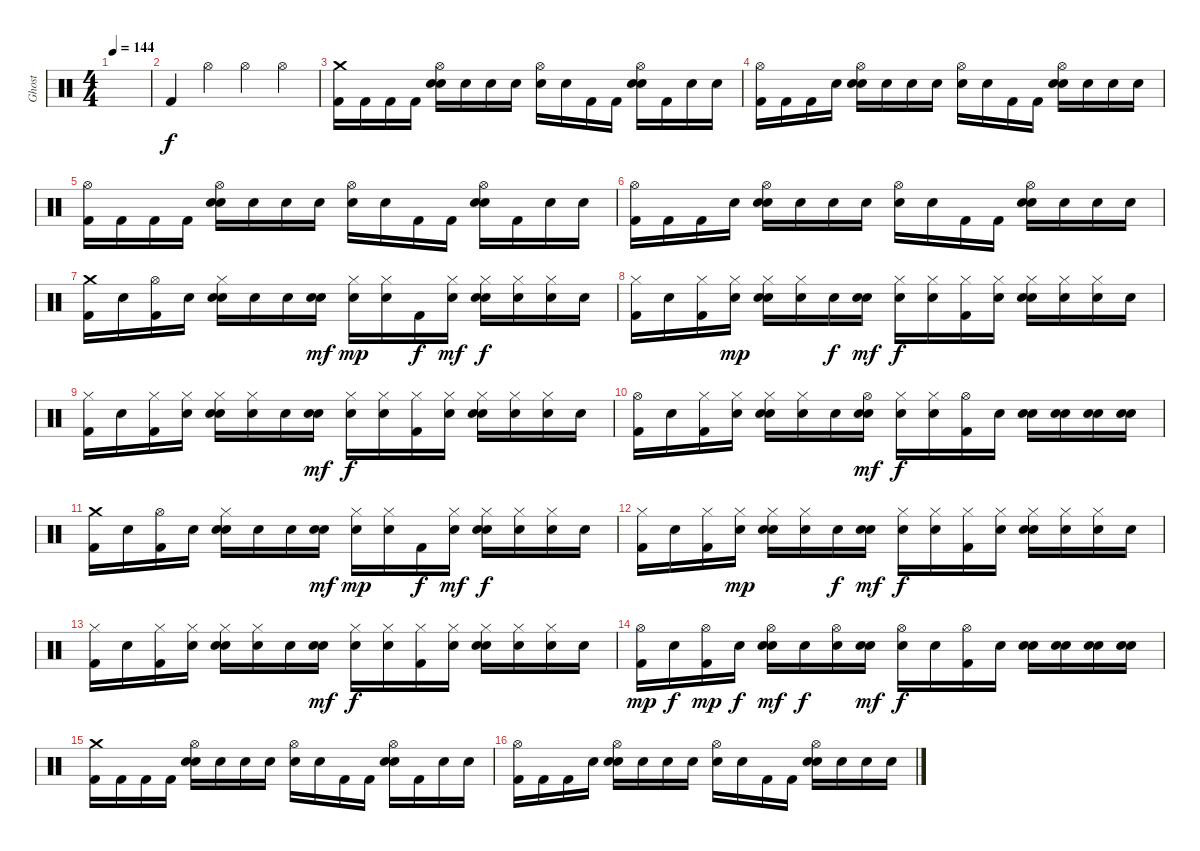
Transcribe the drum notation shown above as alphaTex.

\track ("Ghost" "Ghost") {instrument percussion}
\staff {score}
\articulation defaults
\ts (4 4)
\tempo 144
\clef neutral
\ks c
|
"Kick (hit) 2".4 "Hi-Hat (open)".4 "Hi-Hat (open)".4 "Hi-Hat (open)".4 |
("Crash medium (hit)" "Kick (hit) 2").16 "Kick (hit) 2".16 "Kick (hit) 2".16 "Kick (hit) 2".16 ("Hi-Hat (open)" "Electric Snare (hit)" "Snare (hit)").16 "Snare (hit)".16 "Snare (hit)".16 "Electric Snare (hit)".16 ("Hi-Hat (open)" "Snare (hit)").16 "Snare (hit)".16 "Kick (hit) 2".16 "Kick (hit) 2".16 ("Hi-Hat (open)" "Electric Snare (hit)" "Snare (hit)").16 "Kick (hit) 2".16 "Snare (hit)".16 "Snare (hit)".16 |
("Hi-Hat (open)" "Kick (hit) 2").16 "Kick (hit) 2".16 "Kick (hit) 2".16 "Snare (hit)".16 ("Hi-Hat (open)" "Electric Snare (hit)" "Snare (hit)").16 "Snare (hit)".16 "Snare (hit)".16 "Electric Snare (hit)".16 ("Hi-Hat (open)" "Snare (hit)").16 "Snare (hit)".16 "Kick (hit) 2".16 "Kick (hit) 2".16 ("Hi-Hat (open)" "Electric Snare (hit)" "Snare (hit)").16 "Snare (hit)".16 "Snare (hit)".16 "Snare (hit)".16 |
("Hi-Hat (open)" "Kick (hit) 2").16 "Kick (hit) 2".16 "Kick (hit) 2".16 "Kick (hit) 2".16 ("Hi-Hat (open)" "Electric Snare (hit)" "Snare (hit)").16 "Snare (hit)".16 "Snare (hit)".16 "Electric Snare (hit)".16 ("Hi-Hat (open)" "Snare (hit)").16 "Snare (hit)".16 "Kick (hit) 2".16 "Kick (hit) 2".16 ("Hi-Hat (open)" "Electric Snare (hit)" "Snare (hit)").16 "Kick (hit) 2".16 "Snare (hit)".16 "Snare (hit)".16 |
("Hi-Hat (open)" "Kick (hit) 2").16 "Kick (hit) 2".16 "Kick (hit) 2".16 "Snare (hit)".16 ("Hi-Hat (open)" "Electric Snare (hit)" "Snare (hit)").16 "Snare (hit)".16 "Snare (hit)".16 "Electric Snare (hit)".16 ("Hi-Hat (open)" "Snare (hit)").16 "Snare (hit)".16 "Kick (hit) 2".16 "Kick (hit) 2".16 ("Hi-Hat (open)" "Electric Snare (hit)" "Snare (hit)").16 "Snare (hit)".16 "Snare (hit)".16 "Snare (hit)".16 |
("Crash medium (hit)" "Kick (hit) 2").16 "Snare (hit)".16 ("Hi-Hat (open)" "Kick (hit) 2").16 "Snare (hit)".16 ("Hi-Hat (closed)" "Electric Snare (hit)" "Snare (hit)").16 "Snare (hit)".16 "Snare (hit)".16 ("Electric Snare (hit)" "Snare (hit)").16{dy mf} ("Hi-Hat (closed)" "Snare (hit)").16{dy mp} ("Hi-Hat (closed)" "Snare (hit)").16 "Kick (hit) 2".16{dy f} ("Hi-Hat (closed)" "Snare (hit)").16{dy mf} ("Hi-Hat (closed)" "Electric Snare (hit)" "Snare (hit)").16{dy f} ("Hi-Hat (closed)" "Snare (hit)").16 ("Hi-Hat (closed)" "Snare (hit)").16 "Snare (hit)".16 |
("Hi-Hat (closed)" "Kick (hit) 2").16 "Snare (hit)".16 ("Hi-Hat (closed)" "Kick (hit) 2").16 ("Hi-Hat (closed)" "Snare (hit)").16{dy mp} ("Hi-Hat (closed)" "Electric Snare (hit)" "Snare (hit)").16 ("Hi-Hat (closed)" "Snare (hit)").16 "Snare (hit)".16{dy f} ("Electric Snare (hit)" "Snare (hit)").16{dy mf} ("Hi-Hat (closed)" "Snare (hit)").16{dy f} ("Hi-Hat (closed)" "Snare (hit)").16 ("Hi-Hat (closed)" "Kick (hit) 2").16 ("Hi-Hat (closed)" "Snare (hit)").16 ("Hi-Hat (closed)" "Electric Snare (hit)" "Snare (hit)").16 ("Hi-Hat (closed)" "Snare (hit)").16 ("Hi-Hat (closed)" "Snare (hit)").16 "Snare (hit)".16 |
("Hi-Hat (closed)" "Kick (hit) 2").16 "Snare (hit)".16 ("Hi-Hat (closed)" "Kick (hit) 2").16 ("Hi-Hat (closed)" "Snare (hit)").16 ("Hi-Hat (closed)" "Electric Snare (hit)" "Snare (hit)").16 ("Hi-Hat (closed)" "Snare (hit)").16 "Snare (hit)".16 ("Electric Snare (hit)" "Snare (hit)").16{dy mf} ("Hi-Hat (closed)" "Snare (hit)").16{dy f} ("Hi-Hat (closed)" "Snare (hit)").16 ("Hi-Hat (closed)" "Kick (hit) 2").16 ("Hi-Hat (closed)" "Snare (hit)").16 ("Hi-Hat (closed)" "Electric Snare (hit)" "Snare (hit)").16 ("Hi-Hat (closed)" "Snare (hit)").16 ("Hi-Hat (closed)" "Snare (hit)").16 "Snare (hit)".16 |
("Hi-Hat (open)" "Kick (hit) 2").16 "Snare (hit)".16 ("Hi-Hat (closed)" "Kick (hit) 2").16 ("Hi-Hat (closed)" "Snare (hit)").16 ("Hi-Hat (closed)" "Electric Snare (hit)" "Snare (hit)").16 ("Hi-Hat (closed)" "Snare (hit)").16 "Snare (hit)".16 ("Hi-Hat (open)" "Electric Snare (hit)" "Snare (hit)").16{dy mf} ("Hi-Hat (closed)" "Snare (hit)").16{dy f} ("Hi-Hat (closed)" "Snare (hit)").16 ("Hi-Hat (open)" "Kick (hit) 2").16 "Snare (hit)".16 ("Electric Snare (hit)" "Snare (hit)").16 ("Electric Snare (hit)" "Snare (hit)").16 ("Electric Snare (hit)" "Snare (hit)").16 ("Electric Snare (hit)" "Snare (hit)").16 |
("Crash medium (hit)" "Kick (hit) 2").16 "Snare (hit)".16 ("Hi-Hat (open)" "Kick (hit) 2").16 "Snare (hit)".16 ("Hi-Hat (closed)" "Electric Snare (hit)" "Snare (hit)").16 "Snare (hit)".16 "Snare (hit)".16 ("Electric Snare (hit)" "Snare (hit)").16{dy mf} ("Hi-Hat (closed)" "Snare (hit)").16{dy mp} ("Hi-Hat (closed)" "Snare (hit)").16 "Kick (hit) 2".16{dy f} ("Hi-Hat (closed)" "Snare (hit)").16{dy mf} ("Hi-Hat (closed)" "Electric Snare (hit)" "Snare (hit)").16{dy f} ("Hi-Hat (closed)" "Snare (hit)").16 ("Hi-Hat (closed)" "Snare (hit)").16 "Snare (hit)".16 |
("Hi-Hat (closed)" "Kick (hit) 2").16 "Snare (hit)".16 ("Hi-Hat (closed)" "Kick (hit) 2").16 ("Hi-Hat (closed)" "Snare (hit)").16{dy mp} ("Hi-Hat (closed)" "Electric Snare (hit)" "Snare (hit)").16 ("Hi-Hat (closed)" "Snare (hit)").16 "Snare (hit)".16{dy f} ("Electric Snare (hit)" "Snare (hit)").16{dy mf} ("Hi-Hat (closed)" "Snare (hit)").16{dy f} ("Hi-Hat (closed)" "Snare (hit)").16 ("Hi-Hat (closed)" "Kick (hit) 2").16 ("Hi-Hat (closed)" "Snare (hit)").16 ("Hi-Hat (closed)" "Electric Snare (hit)" "Snare (hit)").16 ("Hi-Hat (closed)" "Snare (hit)").16 ("Hi-Hat (closed)" "Snare (hit)").16 "Snare (hit)".16 |
("Hi-Hat (closed)" "Kick (hit) 2").16 "Snare (hit)".16 ("Hi-Hat (closed)" "Kick (hit) 2").16 ("Hi-Hat (closed)" "Snare (hit)").16 ("Hi-Hat (closed)" "Electric Snare (hit)" "Snare (hit)").16 ("Hi-Hat (closed)" "Snare (hit)").16 "Snare (hit)".16 ("Electric Snare (hit)" "Snare (hit)").16{dy mf} ("Hi-Hat (closed)" "Snare (hit)").16{dy f} ("Hi-Hat (closed)" "Snare (hit)").16 ("Hi-Hat (closed)" "Kick (hit) 2").16 ("Hi-Hat (closed)" "Snare (hit)").16 ("Hi-Hat (closed)" "Electric Snare (hit)" "Snare (hit)").16 ("Hi-Hat (closed)" "Snare (hit)").16 ("Hi-Hat (closed)" "Snare (hit)").16 "Snare (hit)".16 |
("Hi-Hat (open)" "Kick (hit) 2").16{dy mp} "Snare (hit)".16{dy f} ("Hi-Hat (open)" "Kick (hit) 2").16{dy mp} "Snare (hit)".16{dy f} ("Hi-Hat (open)" "Electric Snare (hit)" "Snare (hit)").16{dy mf} "Snare (hit)".16{dy f} ("Hi-Hat (open)" "Snare (hit)").16 ("Electric Snare (hit)" "Snare (hit)").16{dy mf} ("Hi-Hat (open)" "Snare (hit)").16{dy f} "Snare (hit)".16 ("Hi-Hat (open)" "Kick (hit) 2").16 "Snare (hit)".16 ("Electric Snare (hit)" "Snare (hit)").16 ("Electric Snare (hit)" "Snare (hit)").16 ("Electric Snare (hit)" "Snare (hit)").16 ("Electric Snare (hit)" "Snare (hit)").16 |
("Crash medium (hit)" "Kick (hit) 2").16 "Kick (hit) 2".16 "Kick (hit) 2".16 "Kick (hit) 2".16 ("Hi-Hat (open)" "Electric Snare (hit)" "Snare (hit)").16 "Snare (hit)".16 "Snare (hit)".16 "Electric Snare (hit)".16 ("Hi-Hat (open)" "Snare (hit)").16 "Snare (hit)".16 "Kick (hit) 2".16 "Kick (hit) 2".16 ("Hi-Hat (open)" "Electric Snare (hit)" "Snare (hit)").16 "Kick (hit) 2".16 "Snare (hit)".16 "Snare (hit)".16 |
("Hi-Hat (open)" "Kick (hit) 2").16 "Kick (hit) 2".16 "Kick (hit) 2".16 "Snare (hit)".16 ("Hi-Hat (open)" "Electric Snare (hit)" "Snare (hit)").16 "Snare (hit)".16 "Snare (hit)".16 "Electric Snare (hit)".16 ("Hi-Hat (open)" "Snare (hit)").16 "Snare (hit)".16 "Kick (hit) 2".16 "Kick (hit) 2".16 ("Hi-Hat (open)" "Electric Snare (hit)" "Snare (hit)").16 "Snare (hit)".16 "Snare (hit)".16 "Snare (hit)".16
